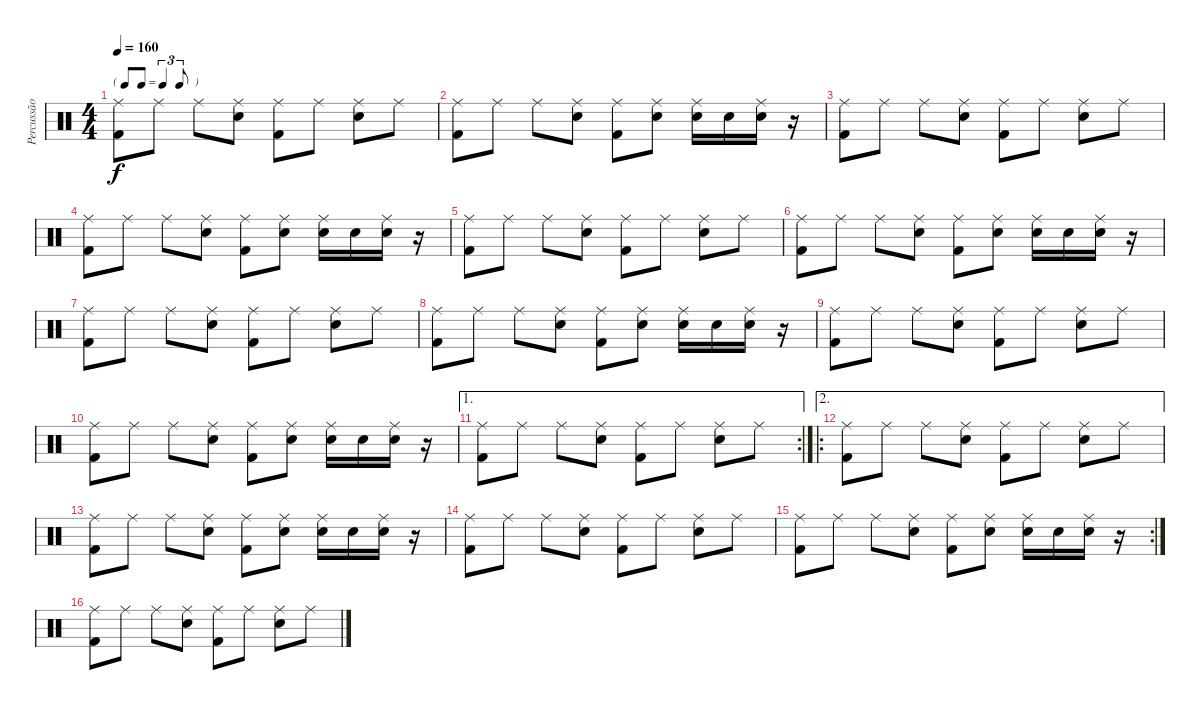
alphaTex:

\track ("Percussão" "Percussão") {instrument percussion}
\staff {score}
\articulation defaults
\ts (4 4)
\tf triplet8th
\tempo 160
\clef neutral
\ks c
("Ride (middle)" "Kick (hit) 2").8{dy f} "Ride (middle)".8 "Ride (middle)".8 ("Ride (middle)" "Snare (hit) 2").8 ("Ride (middle)" "Kick (hit) 2").8 "Ride (middle)".8 ("Ride (middle)" "Snare (hit) 2").8 "Ride (middle)".8 |
("Ride (middle)" "Kick (hit) 2").8 "Ride (middle)".8 "Ride (middle)".8 ("Ride (middle)" "Snare (hit) 2").8 ("Ride (middle)" "Kick (hit) 2").8 ("Ride (middle)" "Snare (hit) 2").8 ("Ride (middle)" "Snare (hit) 2").16 "Snare (hit) 2".16 ("Ride (middle)" "Snare (hit) 2").16 r.16 |
("Ride (middle)" "Kick (hit) 2").8 "Ride (middle)".8 "Ride (middle)".8 ("Ride (middle)" "Snare (hit) 2").8 ("Ride (middle)" "Kick (hit) 2").8 "Ride (middle)".8 ("Ride (middle)" "Snare (hit) 2").8 "Ride (middle)".8 |
("Ride (middle)" "Kick (hit) 2").8 "Ride (middle)".8 "Ride (middle)".8 ("Ride (middle)" "Snare (hit) 2").8 ("Ride (middle)" "Kick (hit) 2").8 ("Ride (middle)" "Snare (hit) 2").8 ("Ride (middle)" "Snare (hit) 2").16 "Snare (hit) 2".16 ("Ride (middle)" "Snare (hit) 2").16 r.16 |
("Ride (middle)" "Kick (hit) 2").8 "Ride (middle)".8 "Ride (middle)".8 ("Ride (middle)" "Snare (hit) 2").8 ("Ride (middle)" "Kick (hit) 2").8 "Ride (middle)".8 ("Ride (middle)" "Snare (hit) 2").8 "Ride (middle)".8 |
("Ride (middle)" "Kick (hit) 2").8 "Ride (middle)".8 "Ride (middle)".8 ("Ride (middle)" "Snare (hit) 2").8 ("Ride (middle)" "Kick (hit) 2").8 ("Ride (middle)" "Snare (hit) 2").8 ("Ride (middle)" "Snare (hit) 2").16 "Snare (hit) 2".16 ("Ride (middle)" "Snare (hit) 2").16 r.16 |
("Ride (middle)" "Kick (hit) 2").8 "Ride (middle)".8 "Ride (middle)".8 ("Ride (middle)" "Snare (hit) 2").8 ("Ride (middle)" "Kick (hit) 2").8 "Ride (middle)".8 ("Ride (middle)" "Snare (hit) 2").8 "Ride (middle)".8 |
("Ride (middle)" "Kick (hit) 2").8 "Ride (middle)".8 "Ride (middle)".8 ("Ride (middle)" "Snare (hit) 2").8 ("Ride (middle)" "Kick (hit) 2").8 ("Ride (middle)" "Snare (hit) 2").8 ("Ride (middle)" "Snare (hit) 2").16 "Snare (hit) 2".16 ("Ride (middle)" "Snare (hit) 2").16 r.16 |
("Ride (middle)" "Kick (hit) 2").8 "Ride (middle)".8 "Ride (middle)".8 ("Ride (middle)" "Snare (hit) 2").8 ("Ride (middle)" "Kick (hit) 2").8 "Ride (middle)".8 ("Ride (middle)" "Snare (hit) 2").8 "Ride (middle)".8 |
("Ride (middle)" "Kick (hit) 2").8 "Ride (middle)".8 "Ride (middle)".8 ("Ride (middle)" "Snare (hit) 2").8 ("Ride (middle)" "Kick (hit) 2").8 ("Ride (middle)" "Snare (hit) 2").8 ("Ride (middle)" "Snare (hit) 2").16 "Snare (hit) 2".16 ("Ride (middle)" "Snare (hit) 2").16 r.16 |
\ae 1
\rc 2
("Ride (middle)" "Kick (hit) 2").8 "Ride (middle)".8 "Ride (middle)".8 ("Ride (middle)" "Snare (hit) 2").8 ("Ride (middle)" "Kick (hit) 2").8 "Ride (middle)".8 ("Ride (middle)" "Snare (hit) 2").8 "Ride (middle)".8 |
\ae 2
\ro
("Ride (middle)" "Kick (hit) 2").8 "Ride (middle)".8 "Ride (middle)".8 ("Ride (middle)" "Snare (hit) 2").8 ("Ride (middle)" "Kick (hit) 2").8 "Ride (middle)".8 ("Ride (middle)" "Snare (hit) 2").8 "Ride (middle)".8 |
("Ride (middle)" "Kick (hit) 2").8 "Ride (middle)".8 "Ride (middle)".8 ("Ride (middle)" "Snare (hit) 2").8 ("Ride (middle)" "Kick (hit) 2").8 ("Ride (middle)" "Snare (hit) 2").8 ("Ride (middle)" "Snare (hit) 2").16 "Snare (hit) 2".16 ("Ride (middle)" "Snare (hit) 2").16 r.16 |
("Ride (middle)" "Kick (hit) 2").8 "Ride (middle)".8 "Ride (middle)".8 ("Ride (middle)" "Snare (hit) 2").8 ("Ride (middle)" "Kick (hit) 2").8 "Ride (middle)".8 ("Ride (middle)" "Snare (hit) 2").8 "Ride (middle)".8 |
\rc 2
("Ride (middle)" "Kick (hit) 2").8 "Ride (middle)".8 "Ride (middle)".8 ("Ride (middle)" "Snare (hit) 2").8 ("Ride (middle)" "Kick (hit) 2").8 ("Ride (middle)" "Snare (hit) 2").8 ("Ride (middle)" "Snare (hit) 2").16 "Snare (hit) 2".16 ("Ride (middle)" "Snare (hit) 2").16 r.16 |
("Ride (middle)" "Kick (hit) 2").8 "Ride (middle)".8 "Ride (middle)".8 ("Ride (middle)" "Snare (hit) 2").8 ("Ride (middle)" "Kick (hit) 2").8 "Ride (middle)".8 ("Ride (middle)" "Snare (hit) 2").8 "Ride (middle)".8
